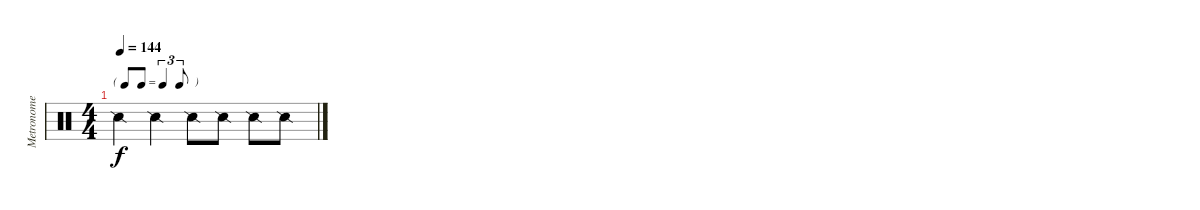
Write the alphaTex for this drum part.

\track ("Metronome" "Metronome") {instrument percussion}
\staff {score}
\articulation defaults
\ts (4 4)
\tf triplet8th
\tempo 144
\clef neutral
\ks c "Snare (side stick) 2".4{dy f} "Snare (side stick) 2".4 "Snare (side stick) 2".8 "Snare (side stick) 2".8 "Snare (side stick) 2".8 "Snare (side stick) 2".8
